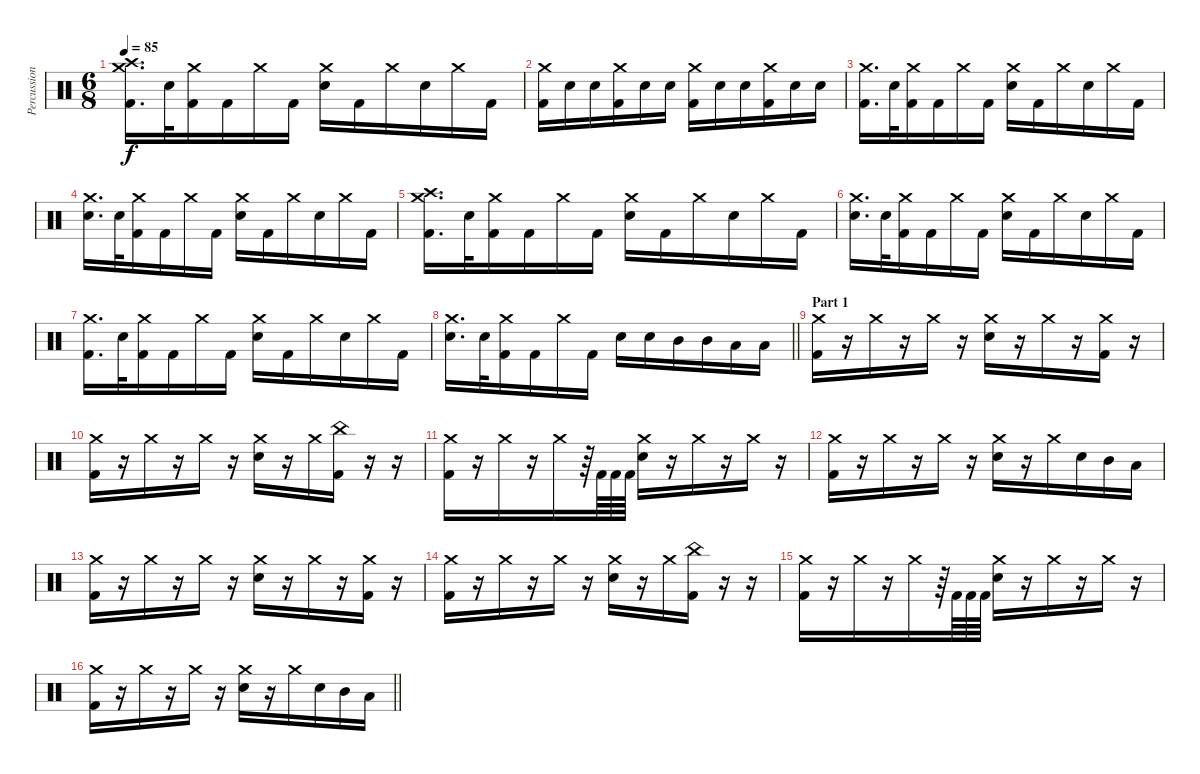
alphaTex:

\track ("Percussion" "Percussion") {instrument percussion}
\staff {score}
\articulation defaults
\ts (6 8)
\tempo 85
\clef neutral
\ks c
("Crash medium (hit)" "Crash high (hit)" "Kick (hit) 2").16{d dy f} "Electric Snare (hit)".32 ("Crash medium (hit)" "Kick (hit) 2").16 "Kick (hit) 2".16 "Crash medium (hit)".16 "Kick (hit) 2".16 ("Crash medium (hit)" "Electric Snare (hit)").16 "Kick (hit) 2".16 "Crash medium (hit)".16 "Electric Snare (hit)".16 "Crash medium (hit)".16 "Kick (hit) 2".16 |
("Crash medium (hit)" "Kick (hit) 2").16 "Electric Snare (hit)".16 "Electric Snare (hit)".16 ("Crash medium (hit)" "Kick (hit) 2").16 "Electric Snare (hit)".16 "Electric Snare (hit)".16 ("Crash medium (hit)" "Kick (hit) 2").16 "Electric Snare (hit)".16 "Electric Snare (hit)".16 ("Crash medium (hit)" "Kick (hit) 2").16 "Electric Snare (hit)".16 "Electric Snare (hit)".16 |
("Crash medium (hit)" "Kick (hit) 2").16{d} "Electric Snare (hit)".32 ("Crash medium (hit)" "Kick (hit) 2").16 "Kick (hit) 2".16 "Crash medium (hit)".16 "Kick (hit) 2".16 ("Crash medium (hit)" "Electric Snare (hit)").16 "Kick (hit) 2".16 "Crash medium (hit)".16 "Electric Snare (hit)".16 "Crash medium (hit)".16 "Kick (hit) 2".16 |
("Crash medium (hit)" "Electric Snare (hit)").16{d} "Electric Snare (hit)".32 ("Crash medium (hit)" "Kick (hit) 2").16 "Kick (hit) 2".16 "Crash medium (hit)".16 "Kick (hit) 2".16 ("Crash medium (hit)" "Electric Snare (hit)").16 "Kick (hit) 2".16 "Crash medium (hit)".16 "Electric Snare (hit)".16 "Crash medium (hit)".16 "Kick (hit) 2".16 |
("Crash medium (hit)" "Crash high (hit)" "Kick (hit) 2").16{d} "Electric Snare (hit)".32 ("Crash medium (hit)" "Kick (hit) 2").16 "Kick (hit) 2".16 "Crash medium (hit)".16 "Kick (hit) 2".16 ("Crash medium (hit)" "Electric Snare (hit)").16 "Kick (hit) 2".16 "Crash medium (hit)".16 "Electric Snare (hit)".16 "Crash medium (hit)".16 "Kick (hit) 2".16 |
("Crash medium (hit)" "Electric Snare (hit)").16{d} "Electric Snare (hit)".32 ("Crash medium (hit)" "Kick (hit) 2").16 "Kick (hit) 2".16 "Crash medium (hit)".16 "Kick (hit) 2".16 ("Crash medium (hit)" "Electric Snare (hit)").16 "Kick (hit) 2".16 "Crash medium (hit)".16 "Electric Snare (hit)".16 "Crash medium (hit)".16 "Kick (hit) 2".16 |
("Crash medium (hit)" "Kick (hit) 2").16{d} "Electric Snare (hit)".32 ("Crash medium (hit)" "Kick (hit) 2").16 "Kick (hit) 2".16 "Crash medium (hit)".16 "Kick (hit) 2".16 ("Crash medium (hit)" "Electric Snare (hit)").16 "Kick (hit) 2".16 "Crash medium (hit)".16 "Electric Snare (hit)".16 "Crash medium (hit)".16 "Kick (hit) 2".16 |
\barLineRight lightlight
("Crash medium (hit)" "Electric Snare (hit)").16{d} "Electric Snare (hit)".32 ("Crash medium (hit)" "Kick (hit) 2").16 "Kick (hit) 2".16 "Crash medium (hit)".16 "Kick (hit) 2".16 "Electric Snare (hit)".16 "Electric Snare (hit)".16 "Mid Tom (hit)".16 "Mid Tom (hit)".16 "Low Tom (hit)".16 "Low Tom (hit)".16 |
\section ("" "Part 1")
("Crash medium (hit)" "Kick (hit) 2").16 r.16 "Crash medium (hit)".16 r.16 "Crash medium (hit)".16 r.16 ("Crash medium (hit)" "Electric Snare (hit)").16 r.16 "Crash medium (hit)".16 r.16 ("Crash medium (hit)" "Kick (hit) 2").16 r.16 |
("Crash medium (hit)" "Kick (hit) 2").16 r.16 "Crash medium (hit)".16 r.16 "Crash medium (hit)".16 r.16 ("Crash medium (hit)" "Electric Snare (hit)").16 r.16 "Crash medium (hit)".16 ("China (hit)" "Kick (hit) 2").16 r.16 r.16 |
("Crash medium (hit)" "Kick (hit) 2").16 r.16 "Crash medium (hit)".16 r.16 "Crash medium (hit)".16 r.64 "Kick (hit) 2".64 "Kick (hit) 2".64 "Kick (hit) 2".64 ("Crash medium (hit)" "Electric Snare (hit)").16 r.16 "Crash medium (hit)".16 r.16 "Crash medium (hit)".16 r.16 |
("Crash medium (hit)" "Kick (hit) 2").16 r.16 "Crash medium (hit)".16 r.16 "Crash medium (hit)".16 r.16 ("Crash medium (hit)" "Electric Snare (hit)").16 r.16 "Crash medium (hit)".16 "Electric Snare (hit)".16 "Mid Tom (hit)".16 "Low Tom (hit)".16 |
("Crash medium (hit)" "Kick (hit) 2").16 r.16 "Crash medium (hit)".16 r.16 "Crash medium (hit)".16 r.16 ("Crash medium (hit)" "Electric Snare (hit)").16 r.16 "Crash medium (hit)".16 r.16 ("Crash medium (hit)" "Kick (hit) 2").16 r.16 |
("Crash medium (hit)" "Kick (hit) 2").16 r.16 "Crash medium (hit)".16 r.16 "Crash medium (hit)".16 r.16 ("Crash medium (hit)" "Electric Snare (hit)").16 r.16 "Crash medium (hit)".16 ("China (hit)" "Kick (hit) 2").16 r.16 r.16 |
("Crash medium (hit)" "Kick (hit) 2").16 r.16 "Crash medium (hit)".16 r.16 "Crash medium (hit)".16 r.64 "Kick (hit) 2".64 "Kick (hit) 2".64 "Kick (hit) 2".64 ("Crash medium (hit)" "Electric Snare (hit)").16 r.16 "Crash medium (hit)".16 r.16 "Crash medium (hit)".16 r.16 |
\barLineRight lightlight
("Crash medium (hit)" "Kick (hit) 2").16 r.16 "Crash medium (hit)".16 r.16 "Crash medium (hit)".16 r.16 ("Crash medium (hit)" "Electric Snare (hit)").16 r.16 "Crash medium (hit)".16 "Electric Snare (hit)".16 "Mid Tom (hit)".16 "Low Tom (hit)".16
